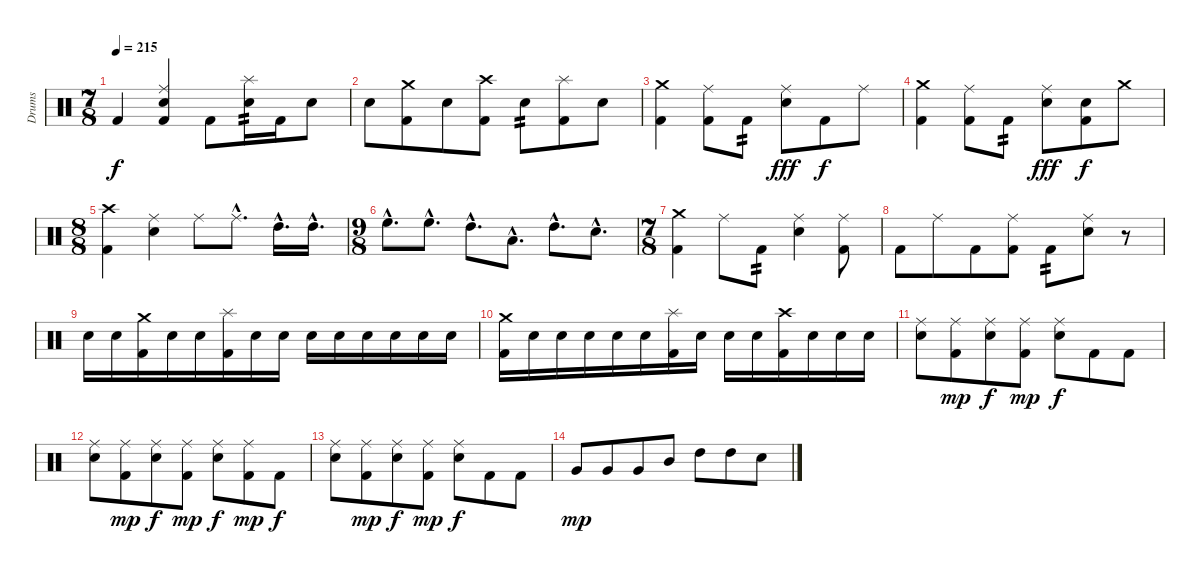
\track ("Drums" "Drums") {instrument percussion}
\staff {score}
\articulation defaults
\ts (7 8)
\tempo 215
\clef neutral
\ks c "Kick (hit) 2".4{dy f}
("Ride (middle)" "Snare (hit) 2" "Kick (hit) 2").4 "Kick (hit) 2".8 ("Splash (hit)" "Snare (hit) 2").16{tp 2} "Kick (hit) 2".16 "Snare (hit) 2".8 |
"Snare (hit) 2".8 ("Crash medium (hit)" "Kick (hit) 2").8 "Snare (hit) 2".8 ("Crash high (hit)" "Kick (hit) 2").8 "Snare (hit) 2".8{tp 2} ("Splash (hit)" "Kick (hit) 2").8 "Snare (hit) 2".8 |
("Crash medium (hit)" "Kick (hit) 2").4 ("Ride (middle)" "Kick (hit) 2").8 "Kick (hit) 2".8{tp 2} ("Ride (middle)" "Snare (hit) 2").8{dy fff} "Kick (hit) 2".8{dy f} "Ride (middle)".8 |
("Crash medium (hit)" "Kick (hit) 2").4 ("Ride (middle)" "Kick (hit) 2").8 "Kick (hit) 2".8{tp 2} ("Ride (middle)" "Snare (hit) 2").8{dy fff} ("Snare (hit) 2" "Kick (hit) 2").8{dy f} "Crash medium (hit)".8 |
\ts (8 8)
("Crash high (hit)" "Kick (hit) 2").4 ("Ride (middle)" "Snare (hit) 2").4 "Ride (middle)".8 "Ride (middle)"{hac}.8{d} "High Tom (hit)"{hac}.16{d} "High Tom (hit)"{hac}.16{d} |
\ts (9 8)
"High Floor Tom (hit)"{hac}.8{d} "High Floor Tom (hit)"{hac}.8{d} "High Tom (hit)"{hac}.8{d} "Low Tom (hit)"{hac}.8{d} "High Tom (hit)"{hac}.8{d} "Snare (hit) 2"{hac}.8{d} |
\ts (7 8)
("Crash medium (hit)" "Kick (hit) 2").4 "Ride (middle)".8 "Kick (hit) 2".8{tp 2} ("Ride (middle)" "Snare (hit) 2").4 ("Ride (middle)" "Kick (hit) 2").8 |
"Kick (hit) 2".8 "Ride (middle)".8 "Kick (hit) 2".8 ("Ride (middle)" "Kick (hit) 2").8 "Kick (hit) 2".8{tp 2} ("Ride (middle)" "Snare (hit) 2").8 r.8 |
"Snare (hit) 2".16 "Snare (hit) 2".16 ("Crash medium (hit)" "Kick (hit) 2").16 "Snare (hit) 2".16 "Snare (hit) 2".16 ("Splash (hit)" "Kick (hit) 2").16 "Snare (hit) 2".16 "Snare (hit) 2".16 "Snare (hit) 2".16 "Snare (hit) 2".16 "Snare (hit) 2".16 "Snare (hit) 2".16 "Snare (hit) 2".16 "Snare (hit) 2".16 |
("Crash medium (hit)" "Kick (hit) 2").16 "Snare (hit) 2".16 "Snare (hit) 2".16 "Snare (hit) 2".16 "Snare (hit) 2".16 "Snare (hit) 2".16 ("Splash (hit)" "Kick (hit) 2").16 "Snare (hit) 2".16 "Snare (hit) 2".16 "Snare (hit) 2".16 ("Crash high (hit)" "Kick (hit) 2").16 "Snare (hit) 2".16 "Snare (hit) 2".16 "Snare (hit) 2".16 |
("Ride (middle)" "Snare (hit) 2").8 ("Ride (middle)" "Kick (hit) 2").8{dy mp} ("Ride (middle)" "Snare (hit) 2").8{dy f} ("Ride (middle)" "Kick (hit) 2").8{dy mp} ("Ride (middle)" "Snare (hit) 2").8{dy f} "Kick (hit) 2".8 "Kick (hit) 2".8 |
("Ride (middle)" "Snare (hit) 2").8 ("Ride (middle)" "Kick (hit) 2").8{dy mp} ("Ride (middle)" "Snare (hit) 2").8{dy f} ("Ride (middle)" "Kick (hit) 2").8{dy mp} ("Ride (middle)" "Snare (hit) 2").8{dy f} ("Ride (middle)" "Kick (hit) 2").8{dy mp} "Kick (hit) 2".8{dy f} |
("Ride (middle)" "Snare (hit) 2").8 ("Ride (middle)" "Kick (hit) 2").8{dy mp} ("Ride (middle)" "Snare (hit) 2").8{dy f} ("Ride (middle)" "Kick (hit) 2").8{dy mp} ("Ride (middle)" "Snare (hit) 2").8{dy f} "Kick (hit) 2".8 "Kick (hit) 2".8 |
"Very Low Tom (hit)".8{dy mp} "Very Low Tom (hit)".8 "Very Low Tom (hit)".8 "Mid Tom (hit)".8 "High Tom (hit)".8 "High Tom (hit)".8 "Snare (hit) 2".8
